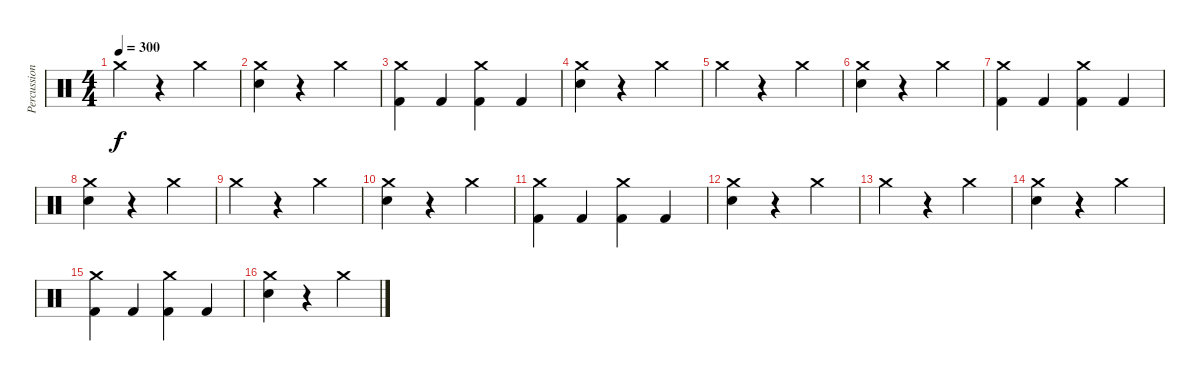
\track ("Percussion" "Percussion") {instrument percussion}
\staff {score}
\articulation defaults
\ts (4 4)
\tempo 300
\clef neutral
\ks c "Crash medium (hit)".4{dy f}
r.4 "Crash medium (hit)".4 |
("Snare (hit) 2" "Crash medium (hit)").4 r.4 "Crash medium (hit)".4 |
("Kick (hit) 2" "Crash medium (hit)").4 "Kick (hit) 2".4 ("Kick (hit) 2" "Crash medium (hit)").4 "Kick (hit) 2".4 |
("Snare (hit) 2" "Crash medium (hit)").4 r.4 "Crash medium (hit)".4 |
"Crash medium (hit)".4 r.4 "Crash medium (hit)".4 |
("Snare (hit) 2" "Crash medium (hit)").4 r.4 "Crash medium (hit)".4 |
("Kick (hit) 2" "Crash medium (hit)").4 "Kick (hit) 2".4 ("Kick (hit) 2" "Crash medium (hit)").4 "Kick (hit) 2".4 |
("Snare (hit) 2" "Crash medium (hit)").4 r.4 "Crash medium (hit)".4 |
"Crash medium (hit)".4 r.4 "Crash medium (hit)".4 |
("Snare (hit) 2" "Crash medium (hit)").4 r.4 "Crash medium (hit)".4 |
("Kick (hit) 2" "Crash medium (hit)").4 "Kick (hit) 2".4 ("Kick (hit) 2" "Crash medium (hit)").4 "Kick (hit) 2".4 |
("Snare (hit) 2" "Crash medium (hit)").4 r.4 "Crash medium (hit)".4 |
"Crash medium (hit)".4 r.4 "Crash medium (hit)".4 |
("Snare (hit) 2" "Crash medium (hit)").4 r.4 "Crash medium (hit)".4 |
("Kick (hit) 2" "Crash medium (hit)").4 "Kick (hit) 2".4 ("Kick (hit) 2" "Crash medium (hit)").4 "Kick (hit) 2".4 |
("Snare (hit) 2" "Crash medium (hit)").4 r.4 "Crash medium (hit)".4
